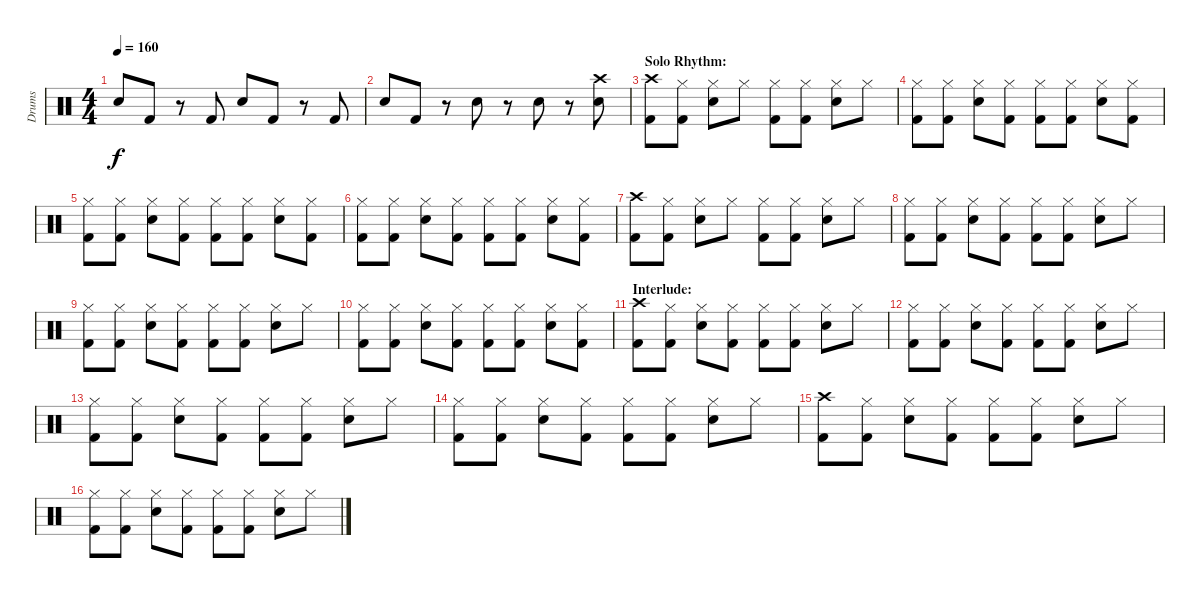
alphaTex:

\track ("Drums" "Drums") {instrument percussion}
\staff {score}
\articulation defaults
\ts (4 4)
\tempo 160
\clef neutral
\ks c "Electric Snare (hit)".8{dy f} "Kick (hit) 2".8
r.8 "Kick (hit) 2".8 "Electric Snare (hit)".8 "Kick (hit) 2".8 r.8 "Kick (hit) 2".8 |
"Electric Snare (hit)".8 "Kick (hit) 2".8 r.8 "Electric Snare (hit)".8 r.8 "Electric Snare (hit)".8 r.8 ("Crash high (hit)" "Electric Snare (hit)").8 |
\section ("" "Solo Rhythm:")
("Crash high (hit)" "Kick (hit) 2").8 ("Hi-Hat (closed)" "Kick (hit) 2").8 ("Hi-Hat (closed)" "Electric Snare (hit)").8 "Hi-Hat (closed)".8 ("Hi-Hat (closed)" "Kick (hit) 2").8 ("Hi-Hat (closed)" "Kick (hit) 2").8 ("Hi-Hat (closed)" "Electric Snare (hit)").8 "Hi-Hat (closed)".8 |
("Hi-Hat (closed)" "Kick (hit) 2").8 ("Hi-Hat (closed)" "Kick (hit) 2").8 ("Hi-Hat (closed)" "Electric Snare (hit)").8 ("Hi-Hat (closed)" "Kick (hit) 2").8 ("Hi-Hat (closed)" "Kick (hit) 2").8 ("Hi-Hat (closed)" "Kick (hit) 2").8 ("Hi-Hat (closed)" "Electric Snare (hit)").8 ("Hi-Hat (closed)" "Kick (hit) 2").8 |
("Hi-Hat (closed)" "Kick (hit) 2").8 ("Hi-Hat (closed)" "Kick (hit) 2").8 ("Hi-Hat (closed)" "Electric Snare (hit)").8 ("Hi-Hat (closed)" "Kick (hit) 2").8 ("Hi-Hat (closed)" "Kick (hit) 2").8 ("Hi-Hat (closed)" "Kick (hit) 2").8 ("Hi-Hat (closed)" "Electric Snare (hit)").8 ("Hi-Hat (closed)" "Kick (hit) 2").8 |
("Hi-Hat (closed)" "Kick (hit) 2").8 ("Hi-Hat (closed)" "Kick (hit) 2").8 ("Hi-Hat (closed)" "Electric Snare (hit)").8 ("Hi-Hat (closed)" "Kick (hit) 2").8 ("Hi-Hat (closed)" "Kick (hit) 2").8 ("Hi-Hat (closed)" "Kick (hit) 2").8 ("Hi-Hat (closed)" "Electric Snare (hit)").8 ("Hi-Hat (closed)" "Kick (hit) 2").8 |
("Crash high (hit)" "Kick (hit) 2").8 ("Hi-Hat (closed)" "Kick (hit) 2").8 ("Hi-Hat (closed)" "Electric Snare (hit)").8 "Hi-Hat (closed)".8 ("Hi-Hat (closed)" "Kick (hit) 2").8 ("Hi-Hat (closed)" "Kick (hit) 2").8 ("Hi-Hat (closed)" "Electric Snare (hit)").8 "Hi-Hat (closed)".8 |
("Hi-Hat (closed)" "Kick (hit) 2").8 ("Hi-Hat (closed)" "Kick (hit) 2").8 ("Hi-Hat (closed)" "Electric Snare (hit)").8 ("Hi-Hat (closed)" "Kick (hit) 2").8 ("Hi-Hat (closed)" "Kick (hit) 2").8 ("Hi-Hat (closed)" "Kick (hit) 2").8 ("Hi-Hat (closed)" "Electric Snare (hit)").8 "Hi-Hat (closed)".8 |
("Hi-Hat (closed)" "Kick (hit) 2").8 ("Hi-Hat (closed)" "Kick (hit) 2").8 ("Hi-Hat (closed)" "Electric Snare (hit)").8 ("Hi-Hat (closed)" "Kick (hit) 2").8 ("Hi-Hat (closed)" "Kick (hit) 2").8 ("Hi-Hat (closed)" "Kick (hit) 2").8 ("Hi-Hat (closed)" "Electric Snare (hit)").8 "Hi-Hat (closed)".8 |
("Hi-Hat (closed)" "Kick (hit) 2").8 ("Hi-Hat (closed)" "Kick (hit) 2").8 ("Hi-Hat (closed)" "Electric Snare (hit)").8 ("Hi-Hat (closed)" "Kick (hit) 2").8 ("Hi-Hat (closed)" "Kick (hit) 2").8 ("Hi-Hat (closed)" "Kick (hit) 2").8 ("Hi-Hat (closed)" "Electric Snare (hit)").8 ("Hi-Hat (closed)" "Kick (hit) 2").8 |
\section ("" "Interlude:")
("Crash high (hit)" "Kick (hit) 2").8 ("Hi-Hat (closed)" "Kick (hit) 2").8 ("Hi-Hat (closed)" "Electric Snare (hit)").8 ("Hi-Hat (closed)" "Kick (hit) 2").8 ("Hi-Hat (closed)" "Kick (hit) 2").8 ("Hi-Hat (closed)" "Kick (hit) 2").8 ("Hi-Hat (closed)" "Electric Snare (hit)").8 "Hi-Hat (closed)".8 |
("Hi-Hat (closed)" "Kick (hit) 2").8 ("Hi-Hat (closed)" "Kick (hit) 2").8 ("Hi-Hat (closed)" "Electric Snare (hit)").8 ("Hi-Hat (closed)" "Kick (hit) 2").8 ("Hi-Hat (closed)" "Kick (hit) 2").8 ("Hi-Hat (closed)" "Kick (hit) 2").8 ("Hi-Hat (closed)" "Electric Snare (hit)").8 "Hi-Hat (closed)".8 |
("Hi-Hat (closed)" "Kick (hit) 2").8 ("Hi-Hat (closed)" "Kick (hit) 2").8 ("Hi-Hat (closed)" "Electric Snare (hit)").8 ("Hi-Hat (closed)" "Kick (hit) 2").8 ("Hi-Hat (closed)" "Kick (hit) 2").8 ("Hi-Hat (closed)" "Kick (hit) 2").8 ("Hi-Hat (closed)" "Electric Snare (hit)").8 "Hi-Hat (closed)".8 |
("Hi-Hat (closed)" "Kick (hit) 2").8 ("Hi-Hat (closed)" "Kick (hit) 2").8 ("Hi-Hat (closed)" "Electric Snare (hit)").8 ("Hi-Hat (closed)" "Kick (hit) 2").8 ("Hi-Hat (closed)" "Kick (hit) 2").8 ("Hi-Hat (closed)" "Kick (hit) 2").8 ("Hi-Hat (closed)" "Electric Snare (hit)").8 "Hi-Hat (closed)".8 |
("Crash high (hit)" "Kick (hit) 2").8 ("Hi-Hat (closed)" "Kick (hit) 2").8 ("Hi-Hat (closed)" "Electric Snare (hit)").8 ("Hi-Hat (closed)" "Kick (hit) 2").8 ("Hi-Hat (closed)" "Kick (hit) 2").8 ("Hi-Hat (closed)" "Kick (hit) 2").8 ("Hi-Hat (closed)" "Electric Snare (hit)").8 "Hi-Hat (closed)".8 |
("Hi-Hat (closed)" "Kick (hit) 2").8 ("Hi-Hat (closed)" "Kick (hit) 2").8 ("Hi-Hat (closed)" "Electric Snare (hit)").8 ("Hi-Hat (closed)" "Kick (hit) 2").8 ("Hi-Hat (closed)" "Kick (hit) 2").8 ("Hi-Hat (closed)" "Kick (hit) 2").8 ("Hi-Hat (closed)" "Electric Snare (hit)").8 "Hi-Hat (closed)".8
